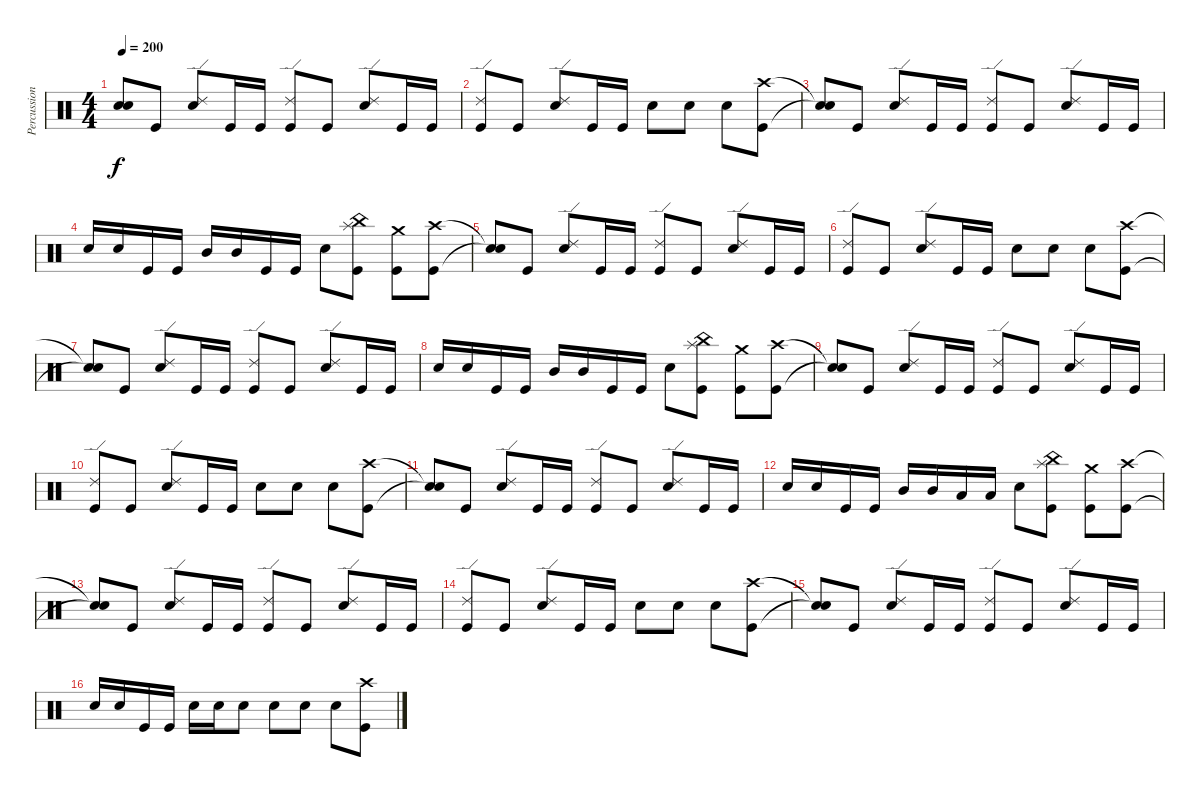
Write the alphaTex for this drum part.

\track ("Percussioni" "Percussion") {instrument percussion}
\staff {score}
\articulation defaults
\ts (4 4)
\tempo 200
\clef neutral
\ks c
("Snare (hit)"{t} "Snare (hit)"{t}).8{dy f} "Kick (hit)".8 ("Ride (edge) 2" "Electric Snare (hit)").8 "Kick (hit)".16 "Kick (hit)".16 ("Ride (edge) 2" "Kick (hit)").8 "Kick (hit)".8 ("Ride (edge) 2" "Electric Snare (hit)").8 "Kick (hit)".16 "Kick (hit)".16 |
("Ride (edge) 2" "Kick (hit)").8 "Kick (hit)".8 ("Ride (edge) 2" "Electric Snare (hit)").8 "Kick (hit)".16 "Kick (hit)".16 "Electric Snare (hit)".8 "Electric Snare (hit)".8 "Electric Snare (hit)".8 ("Crash high (hit)" "Kick (hit)").8 |
("Snare (hit)"{t} "Snare (hit)"{t}).8 "Kick (hit)".8 ("Ride (edge) 2" "Electric Snare (hit)").8 "Kick (hit)".16 "Kick (hit)".16 ("Ride (edge) 2" "Kick (hit)").8 "Kick (hit)".8 ("Ride (edge) 2" "Electric Snare (hit)").8 "Kick (hit)".16 "Kick (hit)".16 |
"Electric Snare (hit)".16 "Electric Snare (hit)".16 "Kick (hit)".16 "Kick (hit)".16 "Mid Tom (hit)".16 "Mid Tom (hit)".16 "Kick (hit)".16 "Kick (hit)".16 "Electric Snare (hit)".8 ("Splash (hit)" "China (hit)" "Kick (hit)").8 ("Crash medium (hit)" "Kick (hit)").8 ("Crash high (hit)" "Kick (hit)").8 |
("Snare (hit)"{t} "Snare (hit)"{t}).8 "Kick (hit)".8 ("Ride (edge) 2" "Electric Snare (hit)").8 "Kick (hit)".16 "Kick (hit)".16 ("Ride (edge) 2" "Kick (hit)").8 "Kick (hit)".8 ("Ride (edge) 2" "Electric Snare (hit)").8 "Kick (hit)".16 "Kick (hit)".16 |
("Ride (edge) 2" "Kick (hit)").8 "Kick (hit)".8 ("Ride (edge) 2" "Electric Snare (hit)").8 "Kick (hit)".16 "Kick (hit)".16 "Electric Snare (hit)".8 "Electric Snare (hit)".8 "Electric Snare (hit)".8 ("Crash high (hit)" "Kick (hit)").8 |
("Snare (hit)"{t} "Snare (hit)"{t}).8 "Kick (hit)".8 ("Ride (edge) 2" "Electric Snare (hit)").8 "Kick (hit)".16 "Kick (hit)".16 ("Ride (edge) 2" "Kick (hit)").8 "Kick (hit)".8 ("Ride (edge) 2" "Electric Snare (hit)").8 "Kick (hit)".16 "Kick (hit)".16 |
"Electric Snare (hit)".16 "Electric Snare (hit)".16 "Kick (hit)".16 "Kick (hit)".16 "Mid Tom (hit)".16 "Mid Tom (hit)".16 "Kick (hit)".16 "Kick (hit)".16 "Electric Snare (hit)".8 ("Splash (hit)" "China (hit)" "Kick (hit)").8 ("Crash medium (hit)" "Kick (hit)").8 ("Crash high (hit)" "Kick (hit)").8 |
("Snare (hit)"{t} "Snare (hit)"{t}).8 "Kick (hit)".8 ("Ride (edge) 2" "Electric Snare (hit)").8 "Kick (hit)".16 "Kick (hit)".16 ("Ride (edge) 2" "Kick (hit)").8 "Kick (hit)".8 ("Ride (edge) 2" "Electric Snare (hit)").8 "Kick (hit)".16 "Kick (hit)".16 |
("Ride (edge) 2" "Kick (hit)").8 "Kick (hit)".8 ("Ride (edge) 2" "Electric Snare (hit)").8 "Kick (hit)".16 "Kick (hit)".16 "Electric Snare (hit)".8 "Electric Snare (hit)".8 "Electric Snare (hit)".8 ("Crash high (hit)" "Kick (hit)").8 |
("Snare (hit)"{t} "Snare (hit)"{t}).8 "Kick (hit)".8 ("Ride (edge) 2" "Electric Snare (hit)").8 "Kick (hit)".16 "Kick (hit)".16 ("Ride (edge) 2" "Kick (hit)").8 "Kick (hit)".8 ("Ride (edge) 2" "Electric Snare (hit)").8 "Kick (hit)".16 "Kick (hit)".16 |
"Electric Snare (hit)".16 "Electric Snare (hit)".16 "Kick (hit)".16 "Kick (hit)".16 "Mid Tom (hit)".16 "Mid Tom (hit)".16 "Low Tom (hit)".16 "Low Tom (hit)".16 "Electric Snare (hit)".8 ("Splash (hit)" "China (hit)" "Kick (hit)").8 ("Crash medium (hit)" "Kick (hit)").8 ("Crash high (hit)" "Kick (hit)").8 |
("Snare (hit)"{t} "Snare (hit)"{t}).8 "Kick (hit)".8 ("Ride (edge) 2" "Electric Snare (hit)").8 "Kick (hit)".16 "Kick (hit)".16 ("Ride (edge) 2" "Kick (hit)").8 "Kick (hit)".8 ("Ride (edge) 2" "Electric Snare (hit)").8 "Kick (hit)".16 "Kick (hit)".16 |
("Ride (edge) 2" "Kick (hit)").8 "Kick (hit)".8 ("Ride (edge) 2" "Electric Snare (hit)").8 "Kick (hit)".16 "Kick (hit)".16 "Electric Snare (hit)".8 "Electric Snare (hit)".8 "Electric Snare (hit)".8 ("Crash high (hit)" "Kick (hit)").8 |
("Snare (hit)"{t} "Snare (hit)"{t}).8 "Kick (hit)".8 ("Ride (edge) 2" "Electric Snare (hit)").8 "Kick (hit)".16 "Kick (hit)".16 ("Ride (edge) 2" "Kick (hit)").8 "Kick (hit)".8 ("Ride (edge) 2" "Electric Snare (hit)").8 "Kick (hit)".16 "Kick (hit)".16 |
"Electric Snare (hit)".16 "Electric Snare (hit)".16 "Kick (hit)".16 "Kick (hit)".16 "Electric Snare (hit)".16 "Electric Snare (hit)".16 "Electric Snare (hit)".8 "Electric Snare (hit)".8 "Electric Snare (hit)".8 "Electric Snare (hit)".8 ("Crash high (hit)" "Kick (hit)").8
